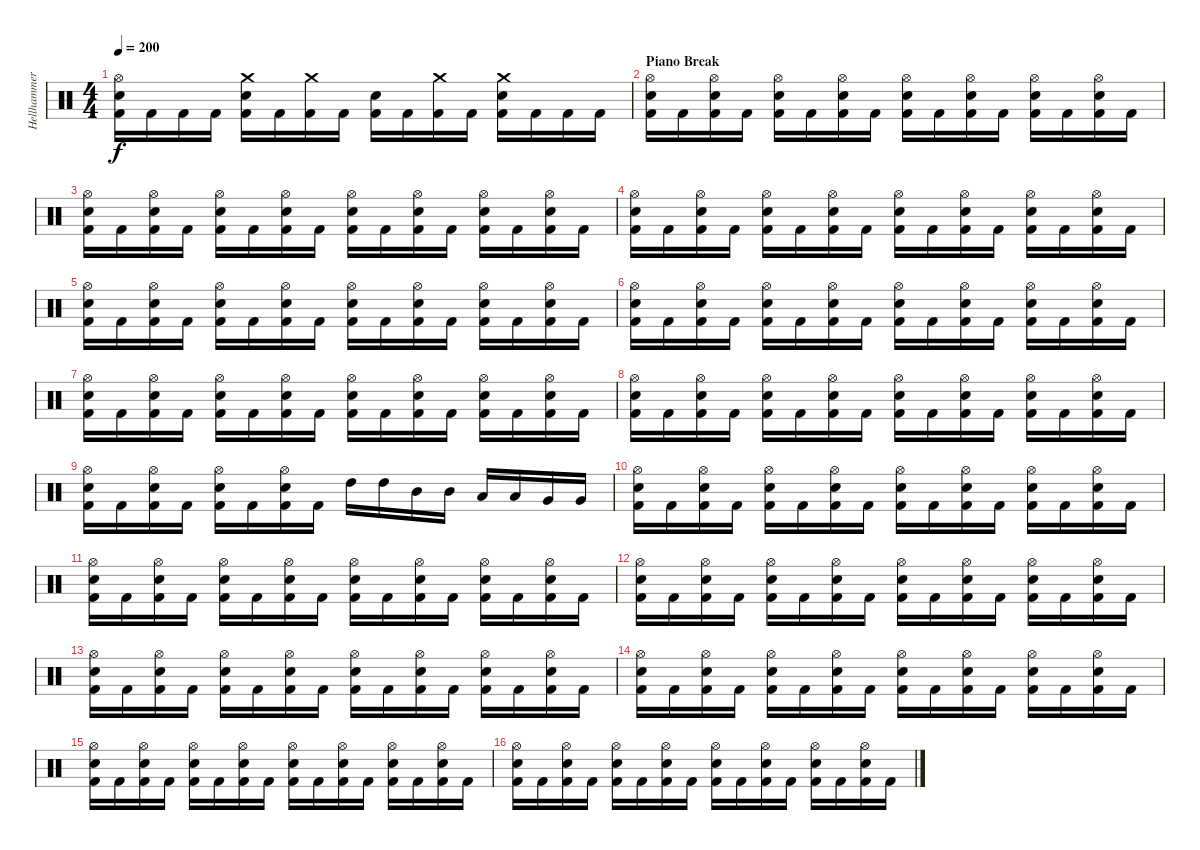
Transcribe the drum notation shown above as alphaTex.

\track ("Hellhammer" "Hellhammer") {instrument percussion}
\staff {score}
\articulation defaults
\ts (4 4)
\tempo 200
\clef neutral
\ks c
("Hi-Hat (open)" "Electric Snare (hit)" "Kick (hit) 2").16{dy f} "Kick (hit) 2".16 "Kick (hit) 2".16 "Kick (hit) 2".16 ("Crash medium (hit)" "Electric Snare (hit)" "Kick (hit) 2").16 "Kick (hit) 2".16 ("Crash medium (hit)" "Kick (hit) 2").16 "Kick (hit) 2".16 ("Electric Snare (hit)" "Kick (hit) 2").16 "Kick (hit) 2".16 ("Crash medium (hit)" "Kick (hit) 2").16 "Kick (hit) 2".16 ("Crash medium (hit)" "Electric Snare (hit)" "Kick (hit) 2").16 "Kick (hit) 2".16 "Kick (hit) 2".16 "Kick (hit) 2".16 |
\section ("" "Piano Break")
("Hi-Hat (open)" "Electric Snare (hit)" "Kick (hit) 2").16 "Kick (hit) 2".16 ("Hi-Hat (open)" "Electric Snare (hit)" "Kick (hit) 2").16 "Kick (hit) 2".16 ("Hi-Hat (open)" "Electric Snare (hit)" "Kick (hit) 2").16 "Kick (hit) 2".16 ("Hi-Hat (open)" "Electric Snare (hit)" "Kick (hit) 2").16 "Kick (hit) 2".16 ("Hi-Hat (open)" "Electric Snare (hit)" "Kick (hit) 2").16 "Kick (hit) 2".16 ("Hi-Hat (open)" "Electric Snare (hit)" "Kick (hit) 2").16 "Kick (hit) 2".16 ("Hi-Hat (open)" "Electric Snare (hit)" "Kick (hit) 2").16 "Kick (hit) 2".16 ("Hi-Hat (open)" "Electric Snare (hit)" "Kick (hit) 2").16 "Kick (hit) 2".16 |
("Hi-Hat (open)" "Electric Snare (hit)" "Kick (hit) 2").16 "Kick (hit) 2".16 ("Hi-Hat (open)" "Electric Snare (hit)" "Kick (hit) 2").16 "Kick (hit) 2".16 ("Hi-Hat (open)" "Electric Snare (hit)" "Kick (hit) 2").16 "Kick (hit) 2".16 ("Hi-Hat (open)" "Electric Snare (hit)" "Kick (hit) 2").16 "Kick (hit) 2".16 ("Hi-Hat (open)" "Electric Snare (hit)" "Kick (hit) 2").16 "Kick (hit) 2".16 ("Hi-Hat (open)" "Electric Snare (hit)" "Kick (hit) 2").16 "Kick (hit) 2".16 ("Hi-Hat (open)" "Electric Snare (hit)" "Kick (hit) 2").16 "Kick (hit) 2".16 ("Hi-Hat (open)" "Electric Snare (hit)" "Kick (hit) 2").16 "Kick (hit) 2".16 |
("Hi-Hat (open)" "Electric Snare (hit)" "Kick (hit) 2").16 "Kick (hit) 2".16 ("Hi-Hat (open)" "Electric Snare (hit)" "Kick (hit) 2").16 "Kick (hit) 2".16 ("Hi-Hat (open)" "Electric Snare (hit)" "Kick (hit) 2").16 "Kick (hit) 2".16 ("Hi-Hat (open)" "Electric Snare (hit)" "Kick (hit) 2").16 "Kick (hit) 2".16 ("Hi-Hat (open)" "Electric Snare (hit)" "Kick (hit) 2").16 "Kick (hit) 2".16 ("Hi-Hat (open)" "Electric Snare (hit)" "Kick (hit) 2").16 "Kick (hit) 2".16 ("Hi-Hat (open)" "Electric Snare (hit)" "Kick (hit) 2").16 "Kick (hit) 2".16 ("Hi-Hat (open)" "Electric Snare (hit)" "Kick (hit) 2").16 "Kick (hit) 2".16 |
("Hi-Hat (open)" "Electric Snare (hit)" "Kick (hit) 2").16 "Kick (hit) 2".16 ("Hi-Hat (open)" "Electric Snare (hit)" "Kick (hit) 2").16 "Kick (hit) 2".16 ("Hi-Hat (open)" "Electric Snare (hit)" "Kick (hit) 2").16 "Kick (hit) 2".16 ("Hi-Hat (open)" "Electric Snare (hit)" "Kick (hit) 2").16 "Kick (hit) 2".16 ("Hi-Hat (open)" "Electric Snare (hit)" "Kick (hit) 2").16 "Kick (hit) 2".16 ("Hi-Hat (open)" "Electric Snare (hit)" "Kick (hit) 2").16 "Kick (hit) 2".16 ("Hi-Hat (open)" "Electric Snare (hit)" "Kick (hit) 2").16 "Kick (hit) 2".16 ("Hi-Hat (open)" "Electric Snare (hit)" "Kick (hit) 2").16 "Kick (hit) 2".16 |
("Hi-Hat (open)" "Electric Snare (hit)" "Kick (hit) 2").16 "Kick (hit) 2".16 ("Hi-Hat (open)" "Electric Snare (hit)" "Kick (hit) 2").16 "Kick (hit) 2".16 ("Hi-Hat (open)" "Electric Snare (hit)" "Kick (hit) 2").16 "Kick (hit) 2".16 ("Hi-Hat (open)" "Electric Snare (hit)" "Kick (hit) 2").16 "Kick (hit) 2".16 ("Hi-Hat (open)" "Electric Snare (hit)" "Kick (hit) 2").16 "Kick (hit) 2".16 ("Hi-Hat (open)" "Electric Snare (hit)" "Kick (hit) 2").16 "Kick (hit) 2".16 ("Hi-Hat (open)" "Electric Snare (hit)" "Kick (hit) 2").16 "Kick (hit) 2".16 ("Hi-Hat (open)" "Electric Snare (hit)" "Kick (hit) 2").16 "Kick (hit) 2".16 |
("Hi-Hat (open)" "Electric Snare (hit)" "Kick (hit) 2").16 "Kick (hit) 2".16 ("Hi-Hat (open)" "Electric Snare (hit)" "Kick (hit) 2").16 "Kick (hit) 2".16 ("Hi-Hat (open)" "Electric Snare (hit)" "Kick (hit) 2").16 "Kick (hit) 2".16 ("Hi-Hat (open)" "Electric Snare (hit)" "Kick (hit) 2").16 "Kick (hit) 2".16 ("Hi-Hat (open)" "Electric Snare (hit)" "Kick (hit) 2").16 "Kick (hit) 2".16 ("Hi-Hat (open)" "Electric Snare (hit)" "Kick (hit) 2").16 "Kick (hit) 2".16 ("Hi-Hat (open)" "Electric Snare (hit)" "Kick (hit) 2").16 "Kick (hit) 2".16 ("Hi-Hat (open)" "Electric Snare (hit)" "Kick (hit) 2").16 "Kick (hit) 2".16 |
("Hi-Hat (open)" "Electric Snare (hit)" "Kick (hit) 2").16 "Kick (hit) 2".16 ("Hi-Hat (open)" "Electric Snare (hit)" "Kick (hit) 2").16 "Kick (hit) 2".16 ("Hi-Hat (open)" "Electric Snare (hit)" "Kick (hit) 2").16 "Kick (hit) 2".16 ("Hi-Hat (open)" "Electric Snare (hit)" "Kick (hit) 2").16 "Kick (hit) 2".16 ("Hi-Hat (open)" "Electric Snare (hit)" "Kick (hit) 2").16 "Kick (hit) 2".16 ("Hi-Hat (open)" "Electric Snare (hit)" "Kick (hit) 2").16 "Kick (hit) 2".16 ("Hi-Hat (open)" "Electric Snare (hit)" "Kick (hit) 2").16 "Kick (hit) 2".16 ("Hi-Hat (open)" "Electric Snare (hit)" "Kick (hit) 2").16 "Kick (hit) 2".16 |
("Hi-Hat (open)" "Electric Snare (hit)" "Kick (hit) 2").16 "Kick (hit) 2".16 ("Hi-Hat (open)" "Electric Snare (hit)" "Kick (hit) 2").16 "Kick (hit) 2".16 ("Hi-Hat (open)" "Electric Snare (hit)" "Kick (hit) 2").16 "Kick (hit) 2".16 ("Hi-Hat (open)" "Electric Snare (hit)" "Kick (hit) 2").16 "Kick (hit) 2".16 "High Tom (hit)".16 "High Tom (hit)".16 "Mid Tom (hit)".16 "Mid Tom (hit)".16 "Low Tom (hit)".16 "Low Tom (hit)".16 "Very Low Tom (hit)".16 "Very Low Tom (hit)".16 |
("Hi-Hat (open)" "Electric Snare (hit)" "Kick (hit) 2").16 "Kick (hit) 2".16 ("Hi-Hat (open)" "Electric Snare (hit)" "Kick (hit) 2").16 "Kick (hit) 2".16 ("Hi-Hat (open)" "Electric Snare (hit)" "Kick (hit) 2").16 "Kick (hit) 2".16 ("Hi-Hat (open)" "Electric Snare (hit)" "Kick (hit) 2").16 "Kick (hit) 2".16 ("Hi-Hat (open)" "Electric Snare (hit)" "Kick (hit) 2").16 "Kick (hit) 2".16 ("Hi-Hat (open)" "Electric Snare (hit)" "Kick (hit) 2").16 "Kick (hit) 2".16 ("Hi-Hat (open)" "Electric Snare (hit)" "Kick (hit) 2").16 "Kick (hit) 2".16 ("Hi-Hat (open)" "Electric Snare (hit)" "Kick (hit) 2").16 "Kick (hit) 2".16 |
("Hi-Hat (open)" "Electric Snare (hit)" "Kick (hit) 2").16 "Kick (hit) 2".16 ("Hi-Hat (open)" "Electric Snare (hit)" "Kick (hit) 2").16 "Kick (hit) 2".16 ("Hi-Hat (open)" "Electric Snare (hit)" "Kick (hit) 2").16 "Kick (hit) 2".16 ("Hi-Hat (open)" "Electric Snare (hit)" "Kick (hit) 2").16 "Kick (hit) 2".16 ("Hi-Hat (open)" "Electric Snare (hit)" "Kick (hit) 2").16 "Kick (hit) 2".16 ("Hi-Hat (open)" "Electric Snare (hit)" "Kick (hit) 2").16 "Kick (hit) 2".16 ("Hi-Hat (open)" "Electric Snare (hit)" "Kick (hit) 2").16 "Kick (hit) 2".16 ("Hi-Hat (open)" "Electric Snare (hit)" "Kick (hit) 2").16 "Kick (hit) 2".16 |
("Hi-Hat (open)" "Electric Snare (hit)" "Kick (hit) 2").16 "Kick (hit) 2".16 ("Hi-Hat (open)" "Electric Snare (hit)" "Kick (hit) 2").16 "Kick (hit) 2".16 ("Hi-Hat (open)" "Electric Snare (hit)" "Kick (hit) 2").16 "Kick (hit) 2".16 ("Hi-Hat (open)" "Electric Snare (hit)" "Kick (hit) 2").16 "Kick (hit) 2".16 ("Hi-Hat (open)" "Electric Snare (hit)" "Kick (hit) 2").16 "Kick (hit) 2".16 ("Hi-Hat (open)" "Electric Snare (hit)" "Kick (hit) 2").16 "Kick (hit) 2".16 ("Hi-Hat (open)" "Electric Snare (hit)" "Kick (hit) 2").16 "Kick (hit) 2".16 ("Hi-Hat (open)" "Electric Snare (hit)" "Kick (hit) 2").16 "Kick (hit) 2".16 |
("Hi-Hat (open)" "Electric Snare (hit)" "Kick (hit) 2").16 "Kick (hit) 2".16 ("Hi-Hat (open)" "Electric Snare (hit)" "Kick (hit) 2").16 "Kick (hit) 2".16 ("Hi-Hat (open)" "Electric Snare (hit)" "Kick (hit) 2").16 "Kick (hit) 2".16 ("Hi-Hat (open)" "Electric Snare (hit)" "Kick (hit) 2").16 "Kick (hit) 2".16 ("Hi-Hat (open)" "Electric Snare (hit)" "Kick (hit) 2").16 "Kick (hit) 2".16 ("Hi-Hat (open)" "Electric Snare (hit)" "Kick (hit) 2").16 "Kick (hit) 2".16 ("Hi-Hat (open)" "Electric Snare (hit)" "Kick (hit) 2").16 "Kick (hit) 2".16 ("Hi-Hat (open)" "Electric Snare (hit)" "Kick (hit) 2").16 "Kick (hit) 2".16 |
("Hi-Hat (open)" "Electric Snare (hit)" "Kick (hit) 2").16 "Kick (hit) 2".16 ("Hi-Hat (open)" "Electric Snare (hit)" "Kick (hit) 2").16 "Kick (hit) 2".16 ("Hi-Hat (open)" "Electric Snare (hit)" "Kick (hit) 2").16 "Kick (hit) 2".16 ("Hi-Hat (open)" "Electric Snare (hit)" "Kick (hit) 2").16 "Kick (hit) 2".16 ("Hi-Hat (open)" "Electric Snare (hit)" "Kick (hit) 2").16 "Kick (hit) 2".16 ("Hi-Hat (open)" "Electric Snare (hit)" "Kick (hit) 2").16 "Kick (hit) 2".16 ("Hi-Hat (open)" "Electric Snare (hit)" "Kick (hit) 2").16 "Kick (hit) 2".16 ("Hi-Hat (open)" "Electric Snare (hit)" "Kick (hit) 2").16 "Kick (hit) 2".16 |
("Hi-Hat (open)" "Electric Snare (hit)" "Kick (hit) 2").16 "Kick (hit) 2".16 ("Hi-Hat (open)" "Electric Snare (hit)" "Kick (hit) 2").16 "Kick (hit) 2".16 ("Hi-Hat (open)" "Electric Snare (hit)" "Kick (hit) 2").16 "Kick (hit) 2".16 ("Hi-Hat (open)" "Electric Snare (hit)" "Kick (hit) 2").16 "Kick (hit) 2".16 ("Hi-Hat (open)" "Electric Snare (hit)" "Kick (hit) 2").16 "Kick (hit) 2".16 ("Hi-Hat (open)" "Electric Snare (hit)" "Kick (hit) 2").16 "Kick (hit) 2".16 ("Hi-Hat (open)" "Electric Snare (hit)" "Kick (hit) 2").16 "Kick (hit) 2".16 ("Hi-Hat (open)" "Electric Snare (hit)" "Kick (hit) 2").16 "Kick (hit) 2".16 |
("Hi-Hat (open)" "Electric Snare (hit)" "Kick (hit) 2").16 "Kick (hit) 2".16 ("Hi-Hat (open)" "Electric Snare (hit)" "Kick (hit) 2").16 "Kick (hit) 2".16 ("Hi-Hat (open)" "Electric Snare (hit)" "Kick (hit) 2").16 "Kick (hit) 2".16 ("Hi-Hat (open)" "Electric Snare (hit)" "Kick (hit) 2").16 "Kick (hit) 2".16 ("Hi-Hat (open)" "Electric Snare (hit)" "Kick (hit) 2").16 "Kick (hit) 2".16 ("Hi-Hat (open)" "Electric Snare (hit)" "Kick (hit) 2").16 "Kick (hit) 2".16 ("Hi-Hat (open)" "Electric Snare (hit)" "Kick (hit) 2").16 "Kick (hit) 2".16 ("Hi-Hat (open)" "Electric Snare (hit)" "Kick (hit) 2").16 "Kick (hit) 2".16
